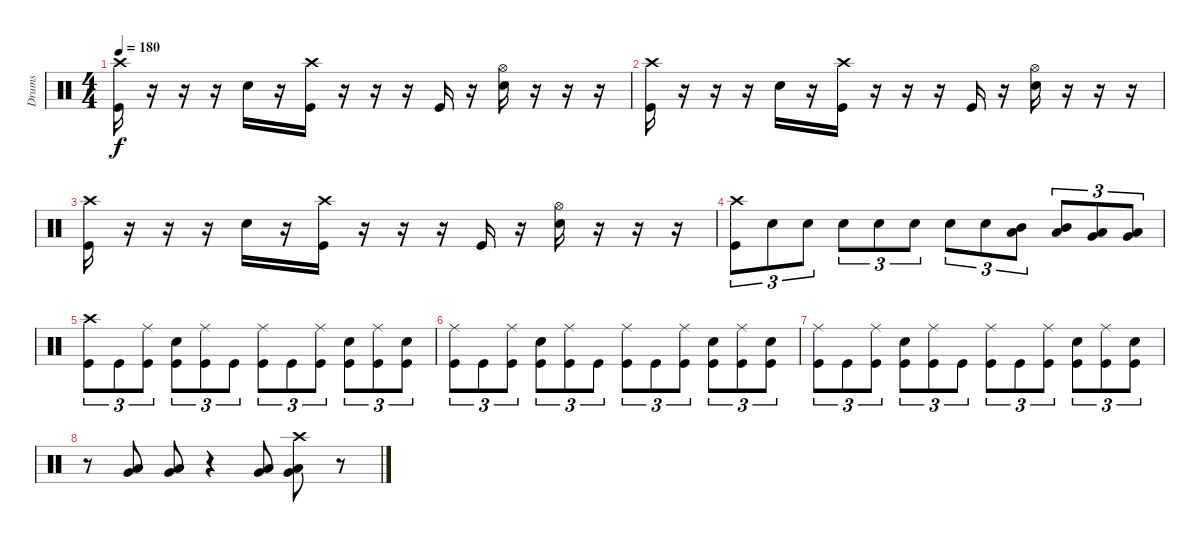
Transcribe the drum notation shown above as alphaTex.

\track ("Drums" "Drums") {instrument percussion}
\staff {score}
\articulation defaults
\ts (4 4)
\tempo 180
\clef neutral
\ks c
("Crash high (hit)" "Kick (hit)").16{dy f} r.16 r.16 r.16 "Snare (hit) 2".16 r.16 ("Crash high (hit)" "Kick (hit)").16 r.16 r.16 r.16 "Kick (hit)".16 r.16 ("Hi-Hat (open)" "Snare (hit) 2").16 r.16 r.16 r.16 |
("Crash high (hit)" "Kick (hit)").16 r.16 r.16 r.16 "Snare (hit) 2".16 r.16 ("Crash high (hit)" "Kick (hit)").16 r.16 r.16 r.16 "Kick (hit)".16 r.16 ("Hi-Hat (open)" "Snare (hit) 2").16 r.16 r.16 r.16 |
("Crash high (hit)" "Kick (hit)").16 r.16 r.16 r.16 "Snare (hit) 2".16 r.16 ("Crash high (hit)" "Kick (hit)").16 r.16 r.16 r.16 "Kick (hit)".16 r.16 ("Hi-Hat (open)" "Snare (hit) 2").16 r.16 r.16 r.16 |
("Crash high (hit)" "Kick (hit)").8{tu (3 2)} "Snare (hit) 2".8{tu (3 2)} "Snare (hit) 2".8{tu (3 2)} "Snare (hit) 2".8{tu (3 2)} "Snare (hit) 2".8{tu (3 2)} "Snare (hit) 2".8{tu (3 2)} "Snare (hit) 2".8{tu (3 2)} "Snare (hit) 2".8{tu (3 2)} ("Mid Tom (hit)" "Low Tom (hit)").8{tu (3 2)} ("Mid Tom (hit)" "Low Tom (hit)").8{tu (3 2)} ("Low Tom (hit)" "Very Low Tom (hit)").8{tu (3 2)} ("Very Low Tom (hit)" "Low Floor Tom (hit)").8{tu (3 2)} |
("Crash high (hit)" "Kick (hit)").8{tu (3 2)} "Kick (hit)".8{tu (3 2)} ("Ride (middle)" "Kick (hit)").8{tu (3 2)} ("Snare (hit) 2" "Kick (hit)").8{tu (3 2)} ("Ride (middle)" "Kick (hit)").8{tu (3 2)} "Kick (hit)".8{tu (3 2)} ("Ride (middle)" "Kick (hit)").8{tu (3 2)} "Kick (hit)".8{tu (3 2)} ("Ride (middle)" "Kick (hit)").8{tu (3 2)} ("Snare (hit) 2" "Kick (hit)").8{tu (3 2)} ("Ride (middle)" "Kick (hit)").8{tu (3 2)} ("Snare (hit) 2" "Kick (hit)").8{tu (3 2)} |
("Ride (middle)" "Kick (hit)").8{tu (3 2)} "Kick (hit)".8{tu (3 2)} ("Ride (middle)" "Kick (hit)").8{tu (3 2)} ("Snare (hit) 2" "Kick (hit)").8{tu (3 2)} ("Ride (middle)" "Kick (hit)").8{tu (3 2)} "Kick (hit)".8{tu (3 2)} ("Ride (middle)" "Kick (hit)").8{tu (3 2)} "Kick (hit)".8{tu (3 2)} ("Ride (middle)" "Kick (hit)").8{tu (3 2)} ("Snare (hit) 2" "Kick (hit)").8{tu (3 2)} ("Ride (middle)" "Kick (hit)").8{tu (3 2)} ("Snare (hit) 2" "Kick (hit)").8{tu (3 2)} |
("Ride (middle)" "Kick (hit)").8{tu (3 2)} "Kick (hit)".8{tu (3 2)} ("Ride (middle)" "Kick (hit)").8{tu (3 2)} ("Snare (hit) 2" "Kick (hit)").8{tu (3 2)} ("Ride (middle)" "Kick (hit)").8{tu (3 2)} "Kick (hit)".8{tu (3 2)} ("Ride (middle)" "Kick (hit)").8{tu (3 2)} "Kick (hit)".8{tu (3 2)} ("Ride (middle)" "Kick (hit)").8{tu (3 2)} ("Snare (hit) 2" "Kick (hit)").8{tu (3 2)} ("Ride (middle)" "Kick (hit)").8{tu (3 2)} ("Snare (hit) 2" "Kick (hit)").8{tu (3 2)} |
r.8 ("Low Tom (hit)" "Very Low Tom (hit)").8 ("Low Tom (hit)" "Very Low Tom (hit)").8 r.4 ("Very Low Tom (hit)" "Low Floor Tom (hit)").8 ("Crash high (hit)" "Very Low Tom (hit)" "Low Floor Tom (hit)").8 r.8
